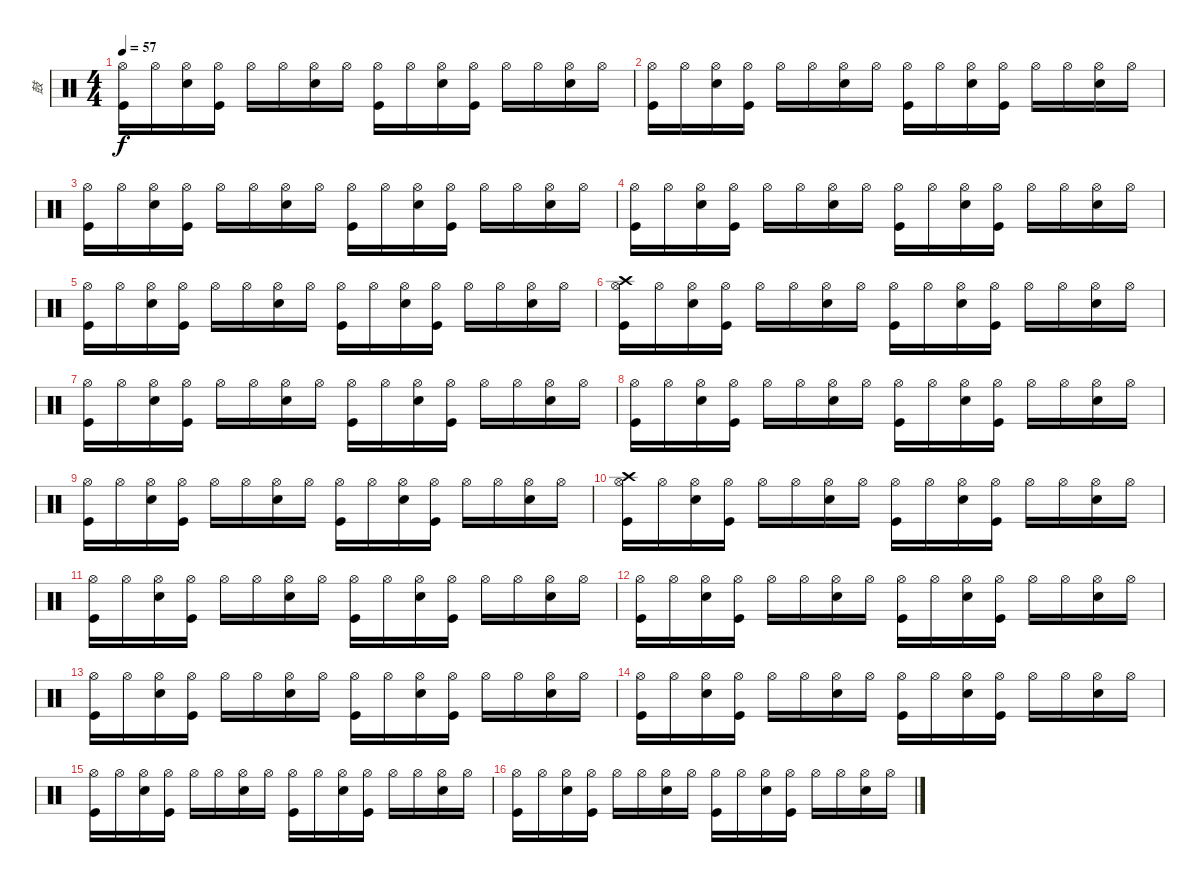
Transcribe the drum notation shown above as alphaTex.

\track ("鼓" "鼓") {instrument percussion}
\staff {score}
\articulation defaults
\ts (4 4)
\tempo 57
\clef neutral
\ks c
("Kick (hit)" "Hi-Hat (open)").16{dy f} "Hi-Hat (open)".16 ("Electric Snare (hit)" "Hi-Hat (open)").16 ("Kick (hit)" "Hi-Hat (open)").16 "Hi-Hat (open)".16 "Hi-Hat (open)".16 ("Electric Snare (hit)" "Hi-Hat (open)").16 "Hi-Hat (open)".16 ("Kick (hit)" "Hi-Hat (open)").16 "Hi-Hat (open)".16 ("Electric Snare (hit)" "Hi-Hat (open)").16 ("Kick (hit)" "Hi-Hat (open)").16 "Hi-Hat (open)".16 "Hi-Hat (open)".16 ("Electric Snare (hit)" "Hi-Hat (open)").16 "Hi-Hat (open)".16 |
("Kick (hit)" "Hi-Hat (open)").16 "Hi-Hat (open)".16 ("Electric Snare (hit)" "Hi-Hat (open)").16 ("Kick (hit)" "Hi-Hat (open)").16 "Hi-Hat (open)".16 "Hi-Hat (open)".16 ("Electric Snare (hit)" "Hi-Hat (open)").16 "Hi-Hat (open)".16 ("Kick (hit)" "Hi-Hat (open)").16 "Hi-Hat (open)".16 ("Electric Snare (hit)" "Hi-Hat (open)").16 ("Kick (hit)" "Hi-Hat (open)").16 "Hi-Hat (open)".16 "Hi-Hat (open)".16 ("Electric Snare (hit)" "Hi-Hat (open)").16 "Hi-Hat (open)".16 |
("Kick (hit)" "Hi-Hat (open)").16 "Hi-Hat (open)".16 ("Electric Snare (hit)" "Hi-Hat (open)").16 ("Kick (hit)" "Hi-Hat (open)").16 "Hi-Hat (open)".16 "Hi-Hat (open)".16 ("Electric Snare (hit)" "Hi-Hat (open)").16 "Hi-Hat (open)".16 ("Kick (hit)" "Hi-Hat (open)").16 "Hi-Hat (open)".16 ("Electric Snare (hit)" "Hi-Hat (open)").16 ("Kick (hit)" "Hi-Hat (open)").16 "Hi-Hat (open)".16 "Hi-Hat (open)".16 ("Electric Snare (hit)" "Hi-Hat (open)").16 "Hi-Hat (open)".16 |
("Kick (hit)" "Hi-Hat (open)").16 "Hi-Hat (open)".16 ("Electric Snare (hit)" "Hi-Hat (open)").16 ("Kick (hit)" "Hi-Hat (open)").16 "Hi-Hat (open)".16 "Hi-Hat (open)".16 ("Electric Snare (hit)" "Hi-Hat (open)").16 "Hi-Hat (open)".16 ("Kick (hit)" "Hi-Hat (open)").16 "Hi-Hat (open)".16 ("Electric Snare (hit)" "Hi-Hat (open)").16 ("Kick (hit)" "Hi-Hat (open)").16 "Hi-Hat (open)".16 "Hi-Hat (open)".16 ("Electric Snare (hit)" "Hi-Hat (open)").16 "Hi-Hat (open)".16 |
("Kick (hit)" "Hi-Hat (open)").16 "Hi-Hat (open)".16 ("Electric Snare (hit)" "Hi-Hat (open)").16 ("Kick (hit)" "Hi-Hat (open)").16 "Hi-Hat (open)".16 "Hi-Hat (open)".16 ("Electric Snare (hit)" "Hi-Hat (open)").16 "Hi-Hat (open)".16 ("Kick (hit)" "Hi-Hat (open)").16 "Hi-Hat (open)".16 ("Electric Snare (hit)" "Hi-Hat (open)").16 ("Kick (hit)" "Hi-Hat (open)").16 "Hi-Hat (open)".16 "Hi-Hat (open)".16 ("Electric Snare (hit)" "Hi-Hat (open)").16 "Hi-Hat (open)".16 |
("Crash high (hit)" "Kick (hit)" "Hi-Hat (open)").16 "Hi-Hat (open)".16 ("Electric Snare (hit)" "Hi-Hat (open)").16 ("Kick (hit)" "Hi-Hat (open)").16 "Hi-Hat (open)".16 "Hi-Hat (open)".16 ("Electric Snare (hit)" "Hi-Hat (open)").16 "Hi-Hat (open)".16 ("Kick (hit)" "Hi-Hat (open)").16 "Hi-Hat (open)".16 ("Electric Snare (hit)" "Hi-Hat (open)").16 ("Kick (hit)" "Hi-Hat (open)").16 "Hi-Hat (open)".16 "Hi-Hat (open)".16 ("Electric Snare (hit)" "Hi-Hat (open)").16 "Hi-Hat (open)".16 |
("Kick (hit)" "Hi-Hat (open)").16 "Hi-Hat (open)".16 ("Electric Snare (hit)" "Hi-Hat (open)").16 ("Kick (hit)" "Hi-Hat (open)").16 "Hi-Hat (open)".16 "Hi-Hat (open)".16 ("Electric Snare (hit)" "Hi-Hat (open)").16 "Hi-Hat (open)".16 ("Kick (hit)" "Hi-Hat (open)").16 "Hi-Hat (open)".16 ("Electric Snare (hit)" "Hi-Hat (open)").16 ("Kick (hit)" "Hi-Hat (open)").16 "Hi-Hat (open)".16 "Hi-Hat (open)".16 ("Electric Snare (hit)" "Hi-Hat (open)").16 "Hi-Hat (open)".16 |
("Kick (hit)" "Hi-Hat (open)").16 "Hi-Hat (open)".16 ("Electric Snare (hit)" "Hi-Hat (open)").16 ("Kick (hit)" "Hi-Hat (open)").16 "Hi-Hat (open)".16 "Hi-Hat (open)".16 ("Electric Snare (hit)" "Hi-Hat (open)").16 "Hi-Hat (open)".16 ("Kick (hit)" "Hi-Hat (open)").16 "Hi-Hat (open)".16 ("Electric Snare (hit)" "Hi-Hat (open)").16 ("Kick (hit)" "Hi-Hat (open)").16 "Hi-Hat (open)".16 "Hi-Hat (open)".16 ("Electric Snare (hit)" "Hi-Hat (open)").16 "Hi-Hat (open)".16 |
("Kick (hit)" "Hi-Hat (open)").16 "Hi-Hat (open)".16 ("Electric Snare (hit)" "Hi-Hat (open)").16 ("Kick (hit)" "Hi-Hat (open)").16 "Hi-Hat (open)".16 "Hi-Hat (open)".16 ("Electric Snare (hit)" "Hi-Hat (open)").16 "Hi-Hat (open)".16 ("Kick (hit)" "Hi-Hat (open)").16 "Hi-Hat (open)".16 ("Electric Snare (hit)" "Hi-Hat (open)").16 ("Kick (hit)" "Hi-Hat (open)").16 "Hi-Hat (open)".16 "Hi-Hat (open)".16 ("Electric Snare (hit)" "Hi-Hat (open)").16 "Hi-Hat (open)".16 |
("Crash high (hit)" "Kick (hit)" "Hi-Hat (open)").16 "Hi-Hat (open)".16 ("Electric Snare (hit)" "Hi-Hat (open)").16 ("Kick (hit)" "Hi-Hat (open)").16 "Hi-Hat (open)".16 "Hi-Hat (open)".16 ("Electric Snare (hit)" "Hi-Hat (open)").16 "Hi-Hat (open)".16 ("Kick (hit)" "Hi-Hat (open)").16 "Hi-Hat (open)".16 ("Electric Snare (hit)" "Hi-Hat (open)").16 ("Kick (hit)" "Hi-Hat (open)").16 "Hi-Hat (open)".16 "Hi-Hat (open)".16 ("Electric Snare (hit)" "Hi-Hat (open)").16 "Hi-Hat (open)".16 |
("Kick (hit)" "Hi-Hat (open)").16 "Hi-Hat (open)".16 ("Electric Snare (hit)" "Hi-Hat (open)").16 ("Kick (hit)" "Hi-Hat (open)").16 "Hi-Hat (open)".16 "Hi-Hat (open)".16 ("Electric Snare (hit)" "Hi-Hat (open)").16 "Hi-Hat (open)".16 ("Kick (hit)" "Hi-Hat (open)").16 "Hi-Hat (open)".16 ("Electric Snare (hit)" "Hi-Hat (open)").16 ("Kick (hit)" "Hi-Hat (open)").16 "Hi-Hat (open)".16 "Hi-Hat (open)".16 ("Electric Snare (hit)" "Hi-Hat (open)").16 "Hi-Hat (open)".16 |
("Kick (hit)" "Hi-Hat (open)").16 "Hi-Hat (open)".16 ("Electric Snare (hit)" "Hi-Hat (open)").16 ("Kick (hit)" "Hi-Hat (open)").16 "Hi-Hat (open)".16 "Hi-Hat (open)".16 ("Electric Snare (hit)" "Hi-Hat (open)").16 "Hi-Hat (open)".16 ("Kick (hit)" "Hi-Hat (open)").16 "Hi-Hat (open)".16 ("Electric Snare (hit)" "Hi-Hat (open)").16 ("Kick (hit)" "Hi-Hat (open)").16 "Hi-Hat (open)".16 "Hi-Hat (open)".16 ("Electric Snare (hit)" "Hi-Hat (open)").16 "Hi-Hat (open)".16 |
("Kick (hit)" "Hi-Hat (open)").16 "Hi-Hat (open)".16 ("Electric Snare (hit)" "Hi-Hat (open)").16 ("Kick (hit)" "Hi-Hat (open)").16 "Hi-Hat (open)".16 "Hi-Hat (open)".16 ("Electric Snare (hit)" "Hi-Hat (open)").16 "Hi-Hat (open)".16 ("Kick (hit)" "Hi-Hat (open)").16 "Hi-Hat (open)".16 ("Electric Snare (hit)" "Hi-Hat (open)").16 ("Kick (hit)" "Hi-Hat (open)").16 "Hi-Hat (open)".16 "Hi-Hat (open)".16 ("Electric Snare (hit)" "Hi-Hat (open)").16 "Hi-Hat (open)".16 |
("Kick (hit)" "Hi-Hat (open)").16 "Hi-Hat (open)".16 ("Electric Snare (hit)" "Hi-Hat (open)").16 ("Kick (hit)" "Hi-Hat (open)").16 "Hi-Hat (open)".16 "Hi-Hat (open)".16 ("Electric Snare (hit)" "Hi-Hat (open)").16 "Hi-Hat (open)".16 ("Kick (hit)" "Hi-Hat (open)").16 "Hi-Hat (open)".16 ("Electric Snare (hit)" "Hi-Hat (open)").16 ("Kick (hit)" "Hi-Hat (open)").16 "Hi-Hat (open)".16 "Hi-Hat (open)".16 ("Electric Snare (hit)" "Hi-Hat (open)").16 "Hi-Hat (open)".16 |
("Kick (hit)" "Hi-Hat (open)").16 "Hi-Hat (open)".16 ("Electric Snare (hit)" "Hi-Hat (open)").16 ("Kick (hit)" "Hi-Hat (open)").16 "Hi-Hat (open)".16 "Hi-Hat (open)".16 ("Electric Snare (hit)" "Hi-Hat (open)").16 "Hi-Hat (open)".16 ("Kick (hit)" "Hi-Hat (open)").16 "Hi-Hat (open)".16 ("Electric Snare (hit)" "Hi-Hat (open)").16 ("Kick (hit)" "Hi-Hat (open)").16 "Hi-Hat (open)".16 "Hi-Hat (open)".16 ("Electric Snare (hit)" "Hi-Hat (open)").16 "Hi-Hat (open)".16 |
("Kick (hit)" "Hi-Hat (open)").16 "Hi-Hat (open)".16 ("Electric Snare (hit)" "Hi-Hat (open)").16 ("Kick (hit)" "Hi-Hat (open)").16 "Hi-Hat (open)".16 "Hi-Hat (open)".16 ("Electric Snare (hit)" "Hi-Hat (open)").16 "Hi-Hat (open)".16 ("Kick (hit)" "Hi-Hat (open)").16 "Hi-Hat (open)".16 ("Electric Snare (hit)" "Hi-Hat (open)").16 ("Kick (hit)" "Hi-Hat (open)").16 "Hi-Hat (open)".16 "Hi-Hat (open)".16 ("Electric Snare (hit)" "Hi-Hat (open)").16 "Hi-Hat (open)".16
